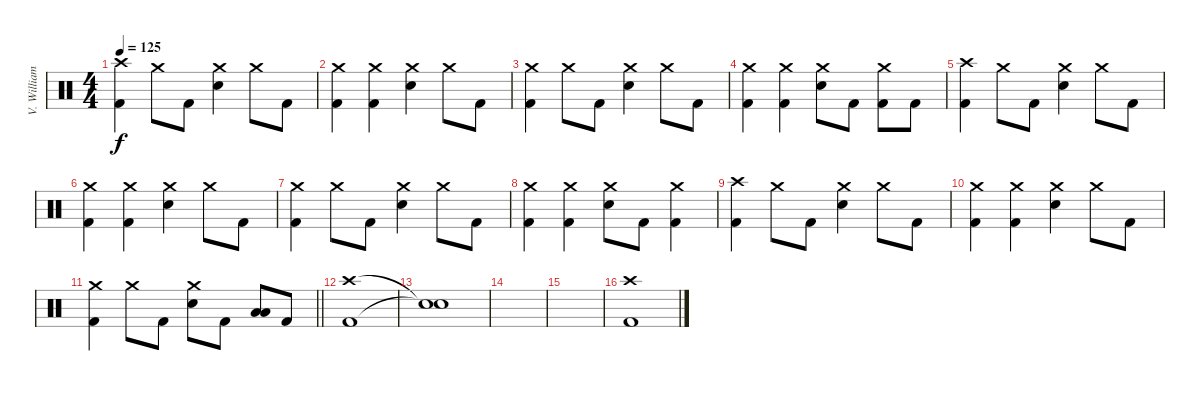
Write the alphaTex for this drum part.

\track ("V. Williams (Drums)" "V. William") {instrument percussion}
\staff {score}
\articulation defaults
\ts (4 4)
\tempo 125
\clef neutral
\ks c
("Crash high (hit)" "Kick (hit) 2").4{dy f} "Crash medium (hit)".8 "Kick (hit) 2".8 ("Crash medium (hit)" "Electric Snare (hit)").4 "Crash medium (hit)".8 "Kick (hit) 2".8 |
("Crash medium (hit)" "Kick (hit) 2").4 ("Crash medium (hit)" "Kick (hit) 2").4 ("Crash medium (hit)" "Electric Snare (hit)").4 "Crash medium (hit)".8 "Kick (hit) 2".8 |
("Crash medium (hit)" "Kick (hit) 2").4 "Crash medium (hit)".8 "Kick (hit) 2".8 ("Crash medium (hit)" "Electric Snare (hit)").4 "Crash medium (hit)".8 "Kick (hit) 2".8 |
("Crash medium (hit)" "Kick (hit) 2").4 ("Crash medium (hit)" "Kick (hit) 2").4 ("Crash medium (hit)" "Electric Snare (hit)").8 "Kick (hit) 2".8 ("Crash medium (hit)" "Kick (hit) 2").8 "Kick (hit) 2".8 |
("Crash high (hit)" "Kick (hit) 2").4 "Crash medium (hit)".8 "Kick (hit) 2".8 ("Crash medium (hit)" "Electric Snare (hit)").4 "Crash medium (hit)".8 "Kick (hit) 2".8 |
("Crash medium (hit)" "Kick (hit) 2").4 ("Crash medium (hit)" "Kick (hit) 2").4 ("Crash medium (hit)" "Electric Snare (hit)").4 "Crash medium (hit)".8 "Kick (hit) 2".8 |
("Crash medium (hit)" "Kick (hit) 2").4 "Crash medium (hit)".8 "Kick (hit) 2".8 ("Crash medium (hit)" "Electric Snare (hit)").4 "Crash medium (hit)".8 "Kick (hit) 2".8 |
("Crash medium (hit)" "Kick (hit) 2").4 ("Crash medium (hit)" "Kick (hit) 2").4 ("Crash medium (hit)" "Electric Snare (hit)").8 "Kick (hit) 2".8 ("Crash medium (hit)" "Kick (hit) 2").4 |
("Crash high (hit)" "Kick (hit) 2").4 "Crash medium (hit)".8 "Kick (hit) 2".8 ("Crash medium (hit)" "Electric Snare (hit)").4 "Crash medium (hit)".8 "Kick (hit) 2".8 |
("Crash medium (hit)" "Kick (hit) 2").4 ("Crash medium (hit)" "Kick (hit) 2").4 ("Crash medium (hit)" "Electric Snare (hit)").4 "Crash medium (hit)".8 "Kick (hit) 2".8 |
\barLineRight lightlight
("Crash medium (hit)" "Kick (hit) 2").4 "Crash medium (hit)".8 "Kick (hit) 2".8 ("Crash medium (hit)" "Electric Snare (hit)").8 "Kick (hit) 2".8 ("Low Floor Tom (hit)" "Low Tom (hit)").8 "Kick (hit) 2".8 |
\section ("" "")
("Crash high (hit)" "Kick (hit) 2").1 |
("Snare (hit)"{t} "Snare (hit)"{t}).1 |
|
|
("Crash high (hit)" "Kick (hit) 2").1
